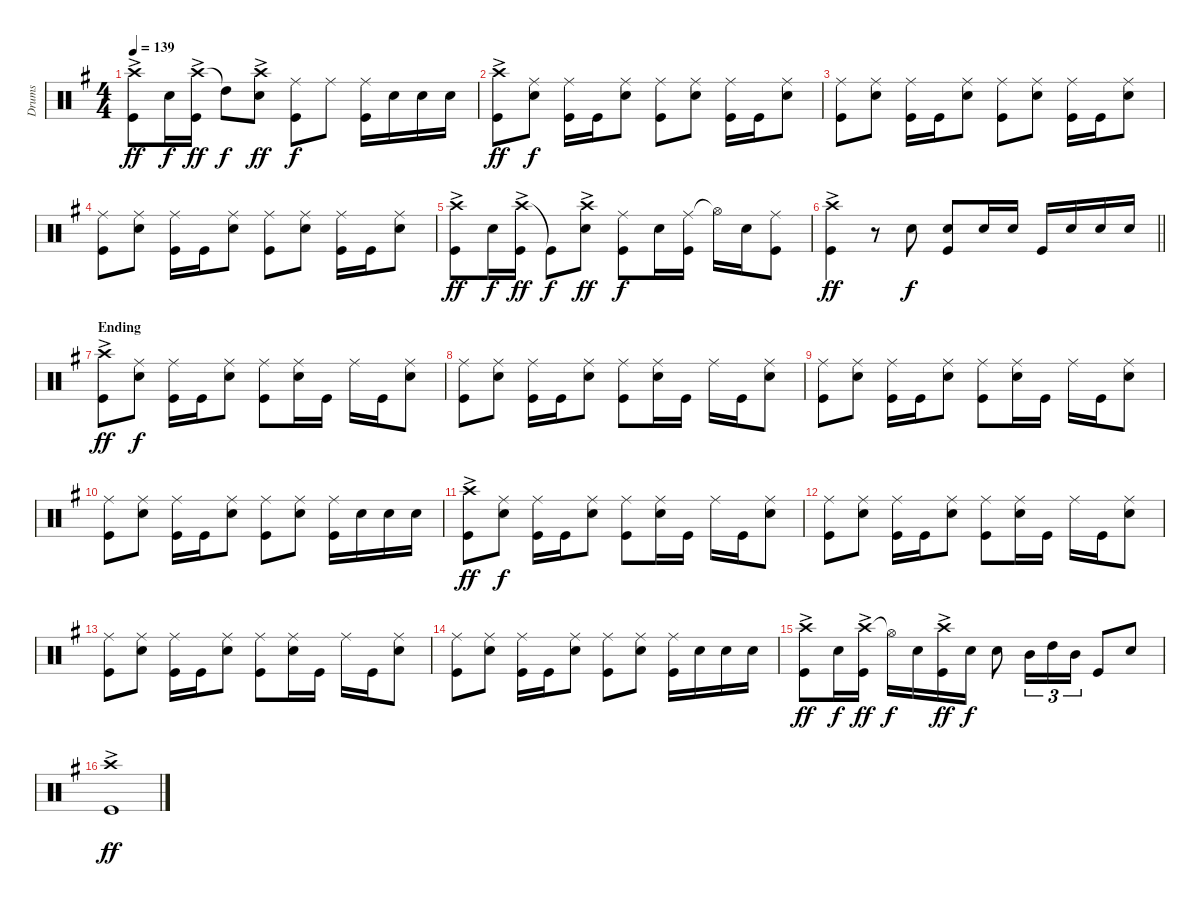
\track ("Drums" "Drums") {instrument percussion}
\staff {score}
\articulation defaults
\ts (4 4)
\tempo 139
\clef neutral
\ks g
("Crash high (hit)"{ac} "Kick (hit)").8{dy ff} "Snare (hit) 2".16{dy f} ("Crash high (hit)"{ac} "Kick (hit)").16{dy ff} "High Tom (hit)"{t}.8{dy f} ("Crash high (hit)"{ac} "Snare (hit) 2").8{dy ff} ("Ride (middle)" "Kick (hit)").8{dy f} "Ride (middle)".8 ("Ride (middle)" "Kick (hit)").16 "Snare (hit) 2".16 "Snare (hit) 2".16 "Snare (hit) 2".16 |
("Crash high (hit)"{ac} "Kick (hit)").8{dy ff} ("Ride (middle)" "Snare (hit) 2").8{dy f} ("Ride (middle)" "Kick (hit)").16 "Kick (hit)".16 ("Ride (middle)" "Snare (hit) 2").8 ("Ride (middle)" "Kick (hit)").8 ("Ride (middle)" "Snare (hit) 2").8 ("Ride (middle)" "Kick (hit)").16 "Kick (hit)".16 ("Ride (middle)" "Snare (hit) 2").8 |
("Ride (middle)" "Kick (hit)").8 ("Ride (middle)" "Snare (hit) 2").8 ("Ride (middle)" "Kick (hit)").16 "Kick (hit)".16 ("Ride (middle)" "Snare (hit) 2").8 ("Ride (middle)" "Kick (hit)").8 ("Ride (middle)" "Snare (hit) 2").8 ("Ride (middle)" "Kick (hit)").16 "Kick (hit)".16 ("Ride (middle)" "Snare (hit) 2").8 |
("Ride (middle)" "Kick (hit)").8 ("Ride (middle)" "Snare (hit) 2").8 ("Ride (middle)" "Kick (hit)").16 "Kick (hit)".16 ("Ride (middle)" "Snare (hit) 2").8 ("Ride (middle)" "Kick (hit)").8 ("Ride (middle)" "Snare (hit) 2").8 ("Ride (middle)" "Kick (hit)").16 "Kick (hit)".16 ("Ride (middle)" "Snare (hit) 2").8 |
("Crash high (hit)"{ac} "Kick (hit)").8{dy ff} "Snare (hit) 2".16{dy f} ("Crash high (hit)"{ac} "Kick (hit)").16{dy ff} "Kick (hit)"{t}.8{dy f} ("Crash high (hit)"{ac} "Snare (hit) 2").8{dy ff} ("Ride (middle)" "Kick (hit)").8{dy f} "Snare (hit) 2".16 ("Ride (middle)" "Kick (hit)").16 "Hi-Hat (open)"{t}.16 "Snare (hit) 2".16 ("Ride (middle)" "Kick (hit)").8 |
\barLineRight lightlight
("Crash high (hit)"{ac} "Kick (hit)").4{dy ff} r.8 "Snare (hit) 2".8{dy f} ("Snare (hit) 2" "Kick (hit)").8 "Snare (hit) 2".16 "Snare (hit) 2".16 "Kick (hit)".16 "Snare (hit) 2".16 "Snare (hit) 2".16 "Snare (hit) 2".16 |
\section ("" "Ending")
("Crash high (hit)"{ac} "Kick (hit)").8{dy ff} ("Ride (middle)" "Snare (hit) 2").8{dy f} ("Ride (middle)" "Kick (hit)").16 "Kick (hit)".16 ("Ride (middle)" "Snare (hit) 2").8 ("Ride (middle)" "Kick (hit)").8 ("Ride (middle)" "Snare (hit) 2").16 "Kick (hit)".16 "Ride (middle)".16 "Kick (hit)".16 ("Ride (middle)" "Snare (hit) 2").8 |
("Ride (middle)" "Kick (hit)").8 ("Ride (middle)" "Snare (hit) 2").8 ("Ride (middle)" "Kick (hit)").16 "Kick (hit)".16 ("Ride (middle)" "Snare (hit) 2").8 ("Ride (middle)" "Kick (hit)").8 ("Ride (middle)" "Snare (hit) 2").16 "Kick (hit)".16 "Ride (middle)".16 "Kick (hit)".16 ("Ride (middle)" "Snare (hit) 2").8 |
("Ride (middle)" "Kick (hit)").8 ("Ride (middle)" "Snare (hit) 2").8 ("Ride (middle)" "Kick (hit)").16 "Kick (hit)".16 ("Ride (middle)" "Snare (hit) 2").8 ("Ride (middle)" "Kick (hit)").8 ("Ride (middle)" "Snare (hit) 2").16 "Kick (hit)".16 "Ride (middle)".16 "Kick (hit)".16 ("Ride (middle)" "Snare (hit) 2").8 |
("Ride (middle)" "Kick (hit)").8 ("Ride (middle)" "Snare (hit) 2").8 ("Ride (middle)" "Kick (hit)").16 "Kick (hit)".16 ("Ride (middle)" "Snare (hit) 2").8 ("Ride (middle)" "Kick (hit)").8 ("Ride (middle)" "Snare (hit) 2").8 ("Ride (middle)" "Kick (hit)").16 "Snare (hit) 2".16 "Snare (hit) 2".16 "Snare (hit) 2".16 |
("Crash high (hit)"{ac} "Kick (hit)").8{dy ff} ("Ride (middle)" "Snare (hit) 2").8{dy f} ("Ride (middle)" "Kick (hit)").16 "Kick (hit)".16 ("Ride (middle)" "Snare (hit) 2").8 ("Ride (middle)" "Kick (hit)").8 ("Ride (middle)" "Snare (hit) 2").16 "Kick (hit)".16 "Ride (middle)".16 "Kick (hit)".16 ("Ride (middle)" "Snare (hit) 2").8 |
("Ride (middle)" "Kick (hit)").8 ("Ride (middle)" "Snare (hit) 2").8 ("Ride (middle)" "Kick (hit)").16 "Kick (hit)".16 ("Ride (middle)" "Snare (hit) 2").8 ("Ride (middle)" "Kick (hit)").8 ("Ride (middle)" "Snare (hit) 2").16 "Kick (hit)".16 "Ride (middle)".16 "Kick (hit)".16 ("Ride (middle)" "Snare (hit) 2").8 |
("Ride (middle)" "Kick (hit)").8 ("Ride (middle)" "Snare (hit) 2").8 ("Ride (middle)" "Kick (hit)").16 "Kick (hit)".16 ("Ride (middle)" "Snare (hit) 2").8 ("Ride (middle)" "Kick (hit)").8 ("Ride (middle)" "Snare (hit) 2").16 "Kick (hit)".16 "Ride (middle)".16 "Kick (hit)".16 ("Ride (middle)" "Snare (hit) 2").8 |
("Ride (middle)" "Kick (hit)").8 ("Ride (middle)" "Snare (hit) 2").8 ("Ride (middle)" "Kick (hit)").16 "Kick (hit)".16 ("Ride (middle)" "Snare (hit) 2").8 ("Ride (middle)" "Kick (hit)").8 ("Ride (middle)" "Snare (hit) 2").8 ("Ride (middle)" "Kick (hit)").16 "Snare (hit) 2".16 "Snare (hit) 2".16 "Snare (hit) 2".16 |
("Crash high (hit)"{ac} "Kick (hit)").8{dy ff} "Snare (hit) 2".16{dy f} ("Crash high (hit)"{ac} "Kick (hit)").16{dy ff} "Hi-Hat (open)"{t}.16{dy f} "Snare (hit) 2".16 ("Crash high (hit)"{ac} "Kick (hit)").16{dy ff} "Snare (hit) 2".16{dy f} "Snare (hit) 2".8 "Mid Tom (hit)".16{tu (3 2)} "High Tom (hit)".16{tu (3 2)} "Mid Tom (hit)".16{tu (3 2)} "Kick (hit)".8 "Snare (hit) 2".8 |
("Crash high (hit)"{ac} "Kick (hit)").1{dy ff}
